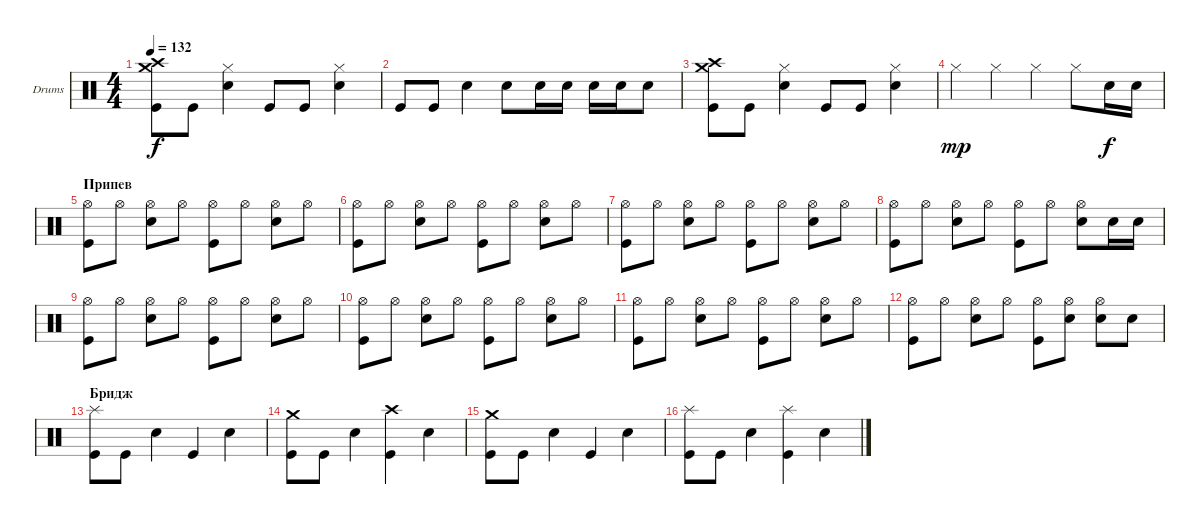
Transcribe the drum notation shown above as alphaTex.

\bracketExtendMode groupsimilarinstruments
\firstSystemTrackNameOrientation horizontal
\otherSystemsTrackNameOrientation horizontal
\track ("Александр Львов" "Drums") {instrument percussion}
\staff {score}
\articulation defaults
\ts (4 4)
\tempo 132
\clef neutral
\ks c
("Kick (hit)" "Crash medium (hit)" "Crash high (hit)").8{dy f} "Kick (hit)".8 ("Snare (hit) 2" "Hi-Hat (closed)").4 "Kick (hit)".8 "Kick (hit)".8 ("Snare (hit) 2" "Hi-Hat (closed)").4 |
"Kick (hit)".8 "Kick (hit)".8 "Snare (hit) 2".4 "Snare (hit) 2".8 "Snare (hit) 2".16 "Snare (hit) 2".16 "Snare (hit) 2".16 "Snare (hit) 2".16 "Snare (hit) 2".8 |
("Kick (hit)" "Crash medium (hit)" "Crash high (hit)").8 "Kick (hit)".8 ("Snare (hit) 2" "Hi-Hat (closed)").4 "Kick (hit)".8 "Kick (hit)".8 ("Snare (hit) 2" "Hi-Hat (closed)").4 |
"Hi-Hat (closed)".4{dy mp} "Hi-Hat (closed)".4 "Hi-Hat (closed)".4 "Hi-Hat (closed)".8 "Snare (hit) 2".16{dy f} "Snare (hit) 2".16 |
\section ("" "Припев")
("Hi-Hat (open)" "Kick (hit)").8 "Hi-Hat (open)".8 ("Hi-Hat (open)" "Snare (hit) 2").8 "Hi-Hat (open)".8 ("Hi-Hat (open)" "Kick (hit)").8 "Hi-Hat (open)".8 ("Hi-Hat (open)" "Snare (hit) 2").8 "Hi-Hat (open)".8 |
("Hi-Hat (open)" "Kick (hit)").8 "Hi-Hat (open)".8 ("Hi-Hat (open)" "Snare (hit) 2").8 "Hi-Hat (open)".8 ("Hi-Hat (open)" "Kick (hit)").8 "Hi-Hat (open)".8 ("Hi-Hat (open)" "Snare (hit) 2").8 "Hi-Hat (open)".8 |
("Hi-Hat (open)" "Kick (hit)").8 "Hi-Hat (open)".8 ("Hi-Hat (open)" "Snare (hit) 2").8 "Hi-Hat (open)".8 ("Hi-Hat (open)" "Kick (hit)").8 "Hi-Hat (open)".8 ("Hi-Hat (open)" "Snare (hit) 2").8 "Hi-Hat (open)".8 |
("Hi-Hat (open)" "Kick (hit)").8 "Hi-Hat (open)".8 ("Hi-Hat (open)" "Snare (hit) 2").8 "Hi-Hat (open)".8 ("Hi-Hat (open)" "Kick (hit)").8 "Hi-Hat (open)".8 ("Hi-Hat (open)" "Snare (hit) 2").8 "Snare (hit) 2".16 "Snare (hit) 2".16 |
("Hi-Hat (open)" "Kick (hit)").8 "Hi-Hat (open)".8 ("Hi-Hat (open)" "Snare (hit) 2").8 "Hi-Hat (open)".8 ("Hi-Hat (open)" "Kick (hit)").8 "Hi-Hat (open)".8 ("Hi-Hat (open)" "Snare (hit) 2").8 "Hi-Hat (open)".8 |
("Hi-Hat (open)" "Kick (hit)").8 "Hi-Hat (open)".8 ("Hi-Hat (open)" "Snare (hit) 2").8 "Hi-Hat (open)".8 ("Hi-Hat (open)" "Kick (hit)").8 "Hi-Hat (open)".8 ("Hi-Hat (open)" "Snare (hit) 2").8 "Hi-Hat (open)".8 |
("Hi-Hat (open)" "Kick (hit)").8 "Hi-Hat (open)".8 ("Hi-Hat (open)" "Snare (hit) 2").8 "Hi-Hat (open)".8 ("Hi-Hat (open)" "Kick (hit)").8 "Hi-Hat (open)".8 ("Hi-Hat (open)" "Snare (hit) 2").8 "Hi-Hat (open)".8 |
("Hi-Hat (open)" "Kick (hit)").8 "Hi-Hat (open)".8 ("Hi-Hat (open)" "Snare (hit) 2").8 "Hi-Hat (open)".8 ("Hi-Hat (open)" "Kick (hit)").8 ("Hi-Hat (open)" "Snare (hit) 2").8 ("Hi-Hat (open)" "Snare (hit) 2").8 "Snare (hit) 2".8 |
\section ("" "Бридж")
("Kick (hit)" "Splash (hit)").8 "Kick (hit)".8 "Snare (hit) 2".4 "Kick (hit)".4 "Snare (hit) 2".4 |
("Kick (hit)" "Crash medium (hit)").8 "Kick (hit)".8 "Snare (hit) 2".4 ("Kick (hit)" "Crash high (hit)").4 "Snare (hit) 2".4 |
("Kick (hit)" "Crash medium (hit)").8 "Kick (hit)".8 "Snare (hit) 2".4 "Kick (hit)".4 "Snare (hit) 2".4 |
("Kick (hit)" "Splash (hit)").8 "Kick (hit)".8 "Snare (hit) 2".4 ("Kick (hit)" "Splash (hit)").4 "Snare (hit) 2".4
